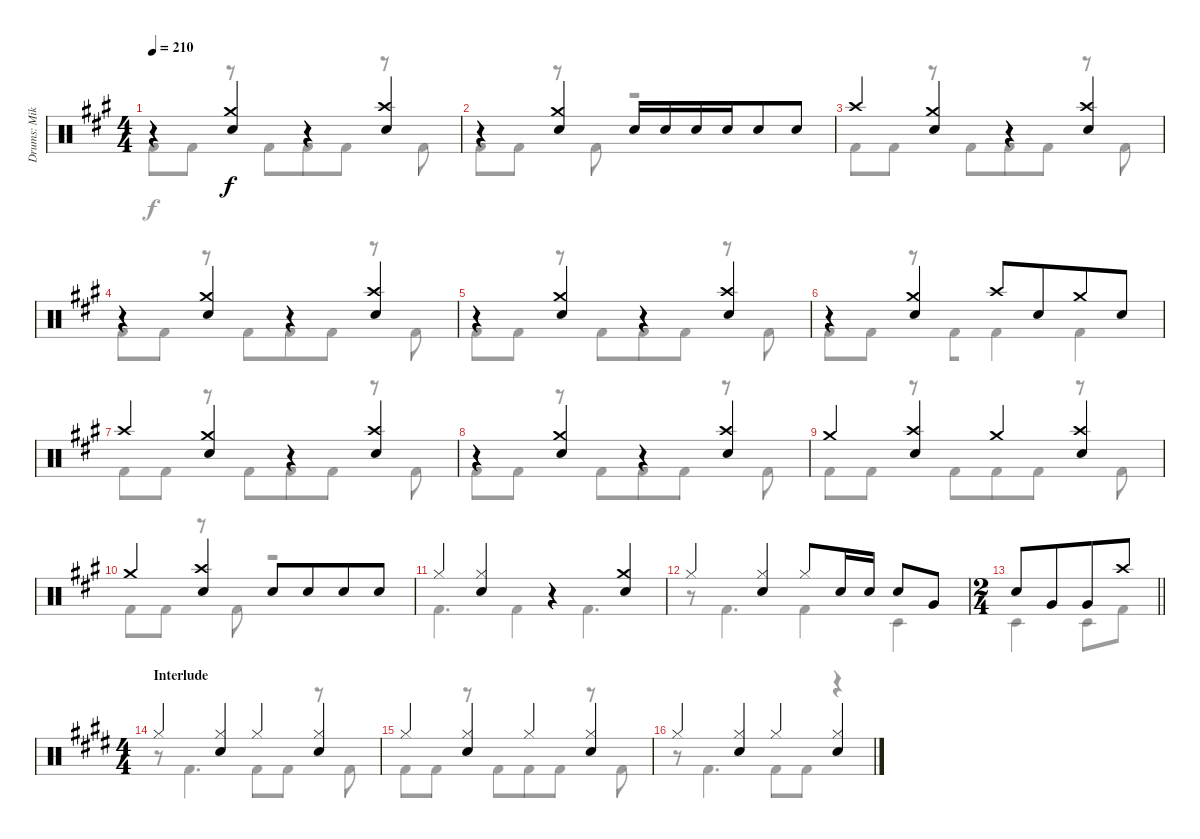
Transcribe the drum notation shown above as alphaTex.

\track ("Drums: Mikkey" "Drums: Mik") {instrument percussion}
\staff {score}
\articulation defaults
\voice
\ts (4 4)
\tempo 210
\clef neutral
\ks a
r.4{dy f} ("Crash medium (hit)" "Snare (hit) 2").4 r.4 ("Crash high (hit)" "Snare (hit) 2").4 |
r.4 ("Crash medium (hit)" "Snare (hit) 2").4 "Snare (hit) 2".16{beam merge} "Snare (hit) 2".16 "Snare (hit) 2".16 "Snare (hit) 2".16{beam merge} "Snare (hit) 2".8 "Snare (hit) 2".8 |
"Crash high (hit)".4 ("Crash medium (hit)" "Snare (hit) 2").4 r.4 ("Crash high (hit)" "Snare (hit) 2").4 |
r.4 ("Crash medium (hit)" "Snare (hit) 2").4 r.4 ("Crash high (hit)" "Snare (hit) 2").4 |
r.4 ("Crash medium (hit)" "Snare (hit) 2").4 r.4 ("Crash high (hit)" "Snare (hit) 2").4 |
r.4 ("Crash medium (hit)" "Snare (hit) 2").4 "Crash high (hit)".8 "Snare (hit) 2".8{beam merge} "Crash medium (hit)".8 "Snare (hit) 2".8 |
"Crash high (hit)".4 ("Crash medium (hit)" "Snare (hit) 2").4 r.4 ("Crash high (hit)" "Snare (hit) 2").4 |
r.4 ("Crash medium (hit)" "Snare (hit) 2").4 r.4 ("Crash high (hit)" "Snare (hit) 2").4 |
"Crash medium (hit)".4 ("Crash high (hit)" "Snare (hit) 2").4 "Crash medium (hit)".4 ("Crash high (hit)" "Snare (hit) 2").4 |
"Crash medium (hit)".4 ("Crash high (hit)" "Snare (hit) 2").4 "Snare (hit) 2".8 "Snare (hit) 2".8{beam merge} "Snare (hit) 2".8 "Snare (hit) 2".8 |
"Hi-Hat (closed)".4 ("Hi-Hat (closed)" "Snare (hit) 2").4 r.4 ("Crash medium (hit)" "Snare (hit) 2").4 |
"Hi-Hat (closed)".4 ("Hi-Hat (closed)" "Snare (hit) 2").4 "Hi-Hat (closed)".8 "Snare (hit) 2".16 "Snare (hit) 2".16 "Snare (hit) 2".8 "Very Low Tom (hit)".8 |
\ts (2 4)
\barLineRight lightlight "Snare (hit) 2".8 "Very Low Tom (hit)".8{beam merge} "Very Low Tom (hit)".8 "Crash high (hit)".8
|
\ts (4 4)
\section ("" "Interlude")
\ks e "Hi-Hat (closed)".4
("Hi-Hat (closed)" "Snare (hit) 2").4 "Hi-Hat (closed)".4 ("Hi-Hat (closed)" "Snare (hit) 2").4 |
"Hi-Hat (closed)".4 ("Hi-Hat (closed)" "Snare (hit) 2").4 "Hi-Hat (closed)".4 ("Hi-Hat (closed)" "Snare (hit) 2").4 |
"Hi-Hat (closed)".4 ("Hi-Hat (closed)" "Snare (hit) 2").4 "Hi-Hat (closed)".4 ("Hi-Hat (closed)" "Snare (hit) 2").4
\voice
\clef neutral
\ottava regular
\simile none
\ks a "Kick (hit) 2".8{dy f} "Kick (hit) 2".8
r.8 "Kick (hit) 2".8{beam merge} "Kick (hit) 2".8 "Kick (hit) 2".8 r.8 "Kick (hit) 2".8 |
"Kick (hit) 2".8 "Kick (hit) 2".8 r.8 "Kick (hit) 2".8{beam merge} r.2 |
"Kick (hit) 2".8 "Kick (hit) 2".8 r.8 "Kick (hit) 2".8{beam merge} "Kick (hit) 2".8 "Kick (hit) 2".8 r.8 "Kick (hit) 2".8 |
"Kick (hit) 2".8 "Kick (hit) 2".8 r.8 "Kick (hit) 2".8{beam merge} "Kick (hit) 2".8 "Kick (hit) 2".8 r.8 "Kick (hit) 2".8 |
"Kick (hit) 2".8 "Kick (hit) 2".8 r.8 "Kick (hit) 2".8{beam merge} "Kick (hit) 2".8 "Kick (hit) 2".8 r.8 "Kick (hit) 2".8 |
"Kick (hit) 2".8 "Kick (hit) 2".8 r.8 "Kick (hit) 2".8{beam merge} "Kick (hit) 2".4 "Kick (hit) 2".4 |
"Kick (hit) 2".8 "Kick (hit) 2".8 r.8 "Kick (hit) 2".8{beam merge} "Kick (hit) 2".8 "Kick (hit) 2".8 r.8 "Kick (hit) 2".8 |
"Kick (hit) 2".8 "Kick (hit) 2".8 r.8 "Kick (hit) 2".8{beam merge} "Kick (hit) 2".8 "Kick (hit) 2".8 r.8 "Kick (hit) 2".8 |
"Kick (hit) 2".8 "Kick (hit) 2".8 r.8 "Kick (hit) 2".8{beam merge} "Kick (hit) 2".8 "Kick (hit) 2".8 r.8 "Kick (hit) 2".8 |
"Kick (hit) 2".8 "Kick (hit) 2".8 r.8 "Kick (hit) 2".8{beam merge} r.2 |
"Kick (hit) 2".4{d} "Kick (hit) 2".4 "Kick (hit) 2".4{d} |
r.8 "Kick (hit) 2".4{d} "Kick (hit) 2".4 "Timbale low (hit)".4 |
\barLineRight lightlight "Timbale low (hit)".4 "Timbale low (hit)".8 "Kick (hit) 2".8
|
\ks e
r.8 "Kick (hit) 2".4{d} "Kick (hit) 2".8 "Kick (hit) 2".8 r.8 "Kick (hit) 2".8 |
"Kick (hit) 2".8 "Kick (hit) 2".8 r.8 "Kick (hit) 2".8{beam merge} "Kick (hit) 2".8 "Kick (hit) 2".8 r.8 "Kick (hit) 2".8 |
r.8 "Kick (hit) 2".4{d beam merge} "Kick (hit) 2".8 "Kick (hit) 2".8 r.4
